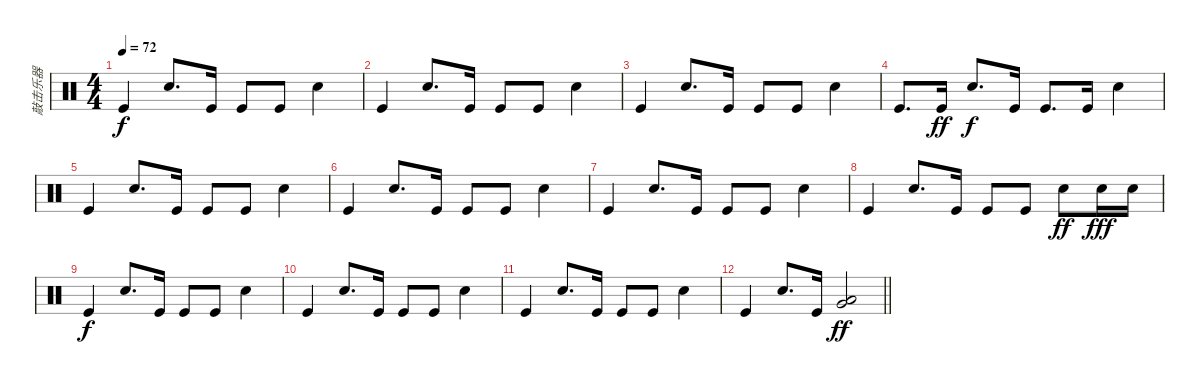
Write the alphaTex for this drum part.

\track ("敲击乐器" "敲击乐器") {instrument percussion}
\staff {score}
\articulation defaults
\ts (4 4)
\tempo 72
\clef neutral
\ks c "Kick (hit)".4{dy f} "Snare (hit) 2".8{d} "Kick (hit)".16 "Kick (hit)".8 "Kick (hit)".8 "Snare (hit) 2".4
|
"Kick (hit)".4 "Snare (hit) 2".8{d} "Kick (hit)".16 "Kick (hit)".8 "Kick (hit)".8 "Snare (hit) 2".4 |
"Kick (hit)".4 "Snare (hit) 2".8{d} "Kick (hit)".16 "Kick (hit)".8 "Kick (hit)".8 "Snare (hit) 2".4 |
"Kick (hit)".8{d} "Kick (hit)".16{dy ff} "Snare (hit) 2".8{d dy f} "Kick (hit)".16 "Kick (hit)".8{d} "Kick (hit)".16 "Snare (hit) 2".4 |
"Kick (hit)".4 "Snare (hit) 2".8{d} "Kick (hit)".16 "Kick (hit)".8 "Kick (hit)".8 "Snare (hit) 2".4 |
"Kick (hit)".4 "Snare (hit) 2".8{d} "Kick (hit)".16 "Kick (hit)".8 "Kick (hit)".8 "Snare (hit) 2".4 |
"Kick (hit)".4 "Snare (hit) 2".8{d} "Kick (hit)".16 "Kick (hit)".8 "Kick (hit)".8 "Snare (hit) 2".4 |
"Kick (hit)".4 "Snare (hit) 2".8{d} "Kick (hit)".16 "Kick (hit)".8 "Kick (hit)".8 "Snare (hit) 2".8{dy ff} "Snare (hit) 2".16{dy fff} "Snare (hit) 2".16 |
"Kick (hit)".4{dy f} "Snare (hit) 2".8{d} "Kick (hit)".16 "Kick (hit)".8 "Kick (hit)".8 "Snare (hit) 2".4 |
"Kick (hit)".4 "Snare (hit) 2".8{d} "Kick (hit)".16 "Kick (hit)".8 "Kick (hit)".8 "Snare (hit) 2".4 |
"Kick (hit)".4 "Snare (hit) 2".8{d} "Kick (hit)".16 "Kick (hit)".8 "Kick (hit)".8 "Snare (hit) 2".4 |
\barLineRight lightlight "Kick (hit)".4 "Snare (hit) 2".8{d} "Kick (hit)".16
("Low Floor Tom (hit)" "Very Low Tom (hit)").2{dy ff}
